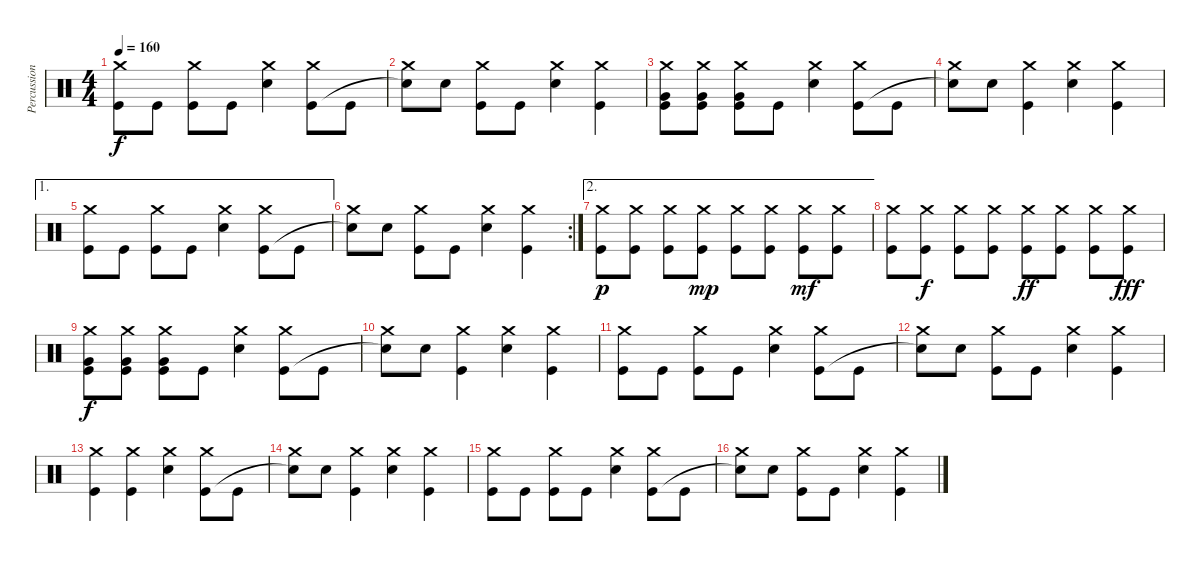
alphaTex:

\track ("Percussion" "Percussion") {instrument percussion}
\staff {score}
\articulation defaults
\ts (4 4)
\tempo 160
\clef neutral
\ks c
("Crash medium (hit)" "Kick (hit)").8{dy f} "Kick (hit)".8 ("Crash medium (hit)" "Kick (hit)").8 "Kick (hit)".8 ("Crash medium (hit)" "Electric Snare (hit)").4 ("Crash medium (hit)" "Kick (hit)").8 "Kick (hit)".8 |
("Crash medium (hit)" "Snare (hit)"{t}).8 "Electric Snare (hit)".8 ("Crash medium (hit)" "Kick (hit)").8 "Kick (hit)".8 ("Crash medium (hit)" "Electric Snare (hit)").4 ("Crash medium (hit)" "Kick (hit)").4 |
("Crash medium (hit)" "Very Low Tom (hit)" "Kick (hit)").8 ("Crash medium (hit)" "Very Low Tom (hit)" "Kick (hit)").8 ("Crash medium (hit)" "Very Low Tom (hit)" "Kick (hit)").8 "Kick (hit)".8 ("Crash medium (hit)" "Electric Snare (hit)").4 ("Crash medium (hit)" "Kick (hit)").8 "Kick (hit)".8 |
("Crash medium (hit)" "Snare (hit)"{t}).8 "Electric Snare (hit)".8 ("Crash medium (hit)" "Kick (hit)").4 ("Crash medium (hit)" "Electric Snare (hit)").4 ("Crash medium (hit)" "Kick (hit)").4 |
\ae 1
("Crash medium (hit)" "Kick (hit)").8 "Kick (hit)".8 ("Crash medium (hit)" "Kick (hit)").8 "Kick (hit)".8 ("Crash medium (hit)" "Electric Snare (hit)").4 ("Crash medium (hit)" "Kick (hit)").8 "Kick (hit)".8 |
\rc 2
("Crash medium (hit)" "Snare (hit)"{t}).8 "Electric Snare (hit)".8 ("Crash medium (hit)" "Kick (hit)").8 "Kick (hit)".8 ("Crash medium (hit)" "Electric Snare (hit)").4 ("Crash medium (hit)" "Kick (hit)").4 |
\ae 2
("Crash medium (hit)" "Kick (hit)").8{dy p} ("Crash medium (hit)" "Kick (hit)").8 ("Crash medium (hit)" "Kick (hit)").8 ("Crash medium (hit)" "Kick (hit)").8{dy mp} ("Crash medium (hit)" "Kick (hit)").8 ("Crash medium (hit)" "Kick (hit)").8 ("Crash medium (hit)" "Kick (hit)").8{dy mf} ("Crash medium (hit)" "Kick (hit)").8 |
("Crash medium (hit)" "Kick (hit)").8 ("Crash medium (hit)" "Kick (hit)").8{dy f} ("Crash medium (hit)" "Kick (hit)").8 ("Crash medium (hit)" "Kick (hit)").8 ("Crash medium (hit)" "Kick (hit)").8{dy ff} ("Crash medium (hit)" "Kick (hit)").8 ("Crash medium (hit)" "Kick (hit)").8 ("Crash medium (hit)" "Kick (hit)").8{dy fff} |
("Crash medium (hit)" "Very Low Tom (hit)" "Kick (hit)").8{dy f} ("Crash medium (hit)" "Very Low Tom (hit)" "Kick (hit)").8 ("Crash medium (hit)" "Very Low Tom (hit)" "Kick (hit)").8 "Kick (hit)".8 ("Crash medium (hit)" "Electric Snare (hit)").4 ("Crash medium (hit)" "Kick (hit)").8 "Kick (hit)".8 |
("Crash medium (hit)" "Snare (hit)"{t}).8 "Electric Snare (hit)".8 ("Crash medium (hit)" "Kick (hit)").4 ("Crash medium (hit)" "Electric Snare (hit)").4 ("Crash medium (hit)" "Kick (hit)").4 |
("Crash medium (hit)" "Kick (hit)").8 "Kick (hit)".8 ("Crash medium (hit)" "Kick (hit)").8 "Kick (hit)".8 ("Crash medium (hit)" "Electric Snare (hit)").4 ("Crash medium (hit)" "Kick (hit)").8 "Kick (hit)".8 |
("Crash medium (hit)" "Snare (hit)"{t}).8 "Electric Snare (hit)".8 ("Crash medium (hit)" "Kick (hit)").8 "Kick (hit)".8 ("Crash medium (hit)" "Electric Snare (hit)").4 ("Crash medium (hit)" "Kick (hit)").4 |
("Crash medium (hit)" "Kick (hit)").4 ("Crash medium (hit)" "Kick (hit)").4 ("Crash medium (hit)" "Electric Snare (hit)").4 ("Crash medium (hit)" "Kick (hit)").8 "Kick (hit)".8 |
("Crash medium (hit)" "Snare (hit)"{t}).8 "Electric Snare (hit)".8 ("Crash medium (hit)" "Kick (hit)").4 ("Crash medium (hit)" "Electric Snare (hit)").4 ("Crash medium (hit)" "Kick (hit)").4 |
("Crash medium (hit)" "Kick (hit)").8 "Kick (hit)".8 ("Crash medium (hit)" "Kick (hit)").8 "Kick (hit)".8 ("Crash medium (hit)" "Electric Snare (hit)").4 ("Crash medium (hit)" "Kick (hit)").8 "Kick (hit)".8 |
("Crash medium (hit)" "Snare (hit)"{t}).8 "Electric Snare (hit)".8 ("Crash medium (hit)" "Kick (hit)").8 "Kick (hit)".8 ("Crash medium (hit)" "Electric Snare (hit)").4 ("Crash medium (hit)" "Kick (hit)").4
